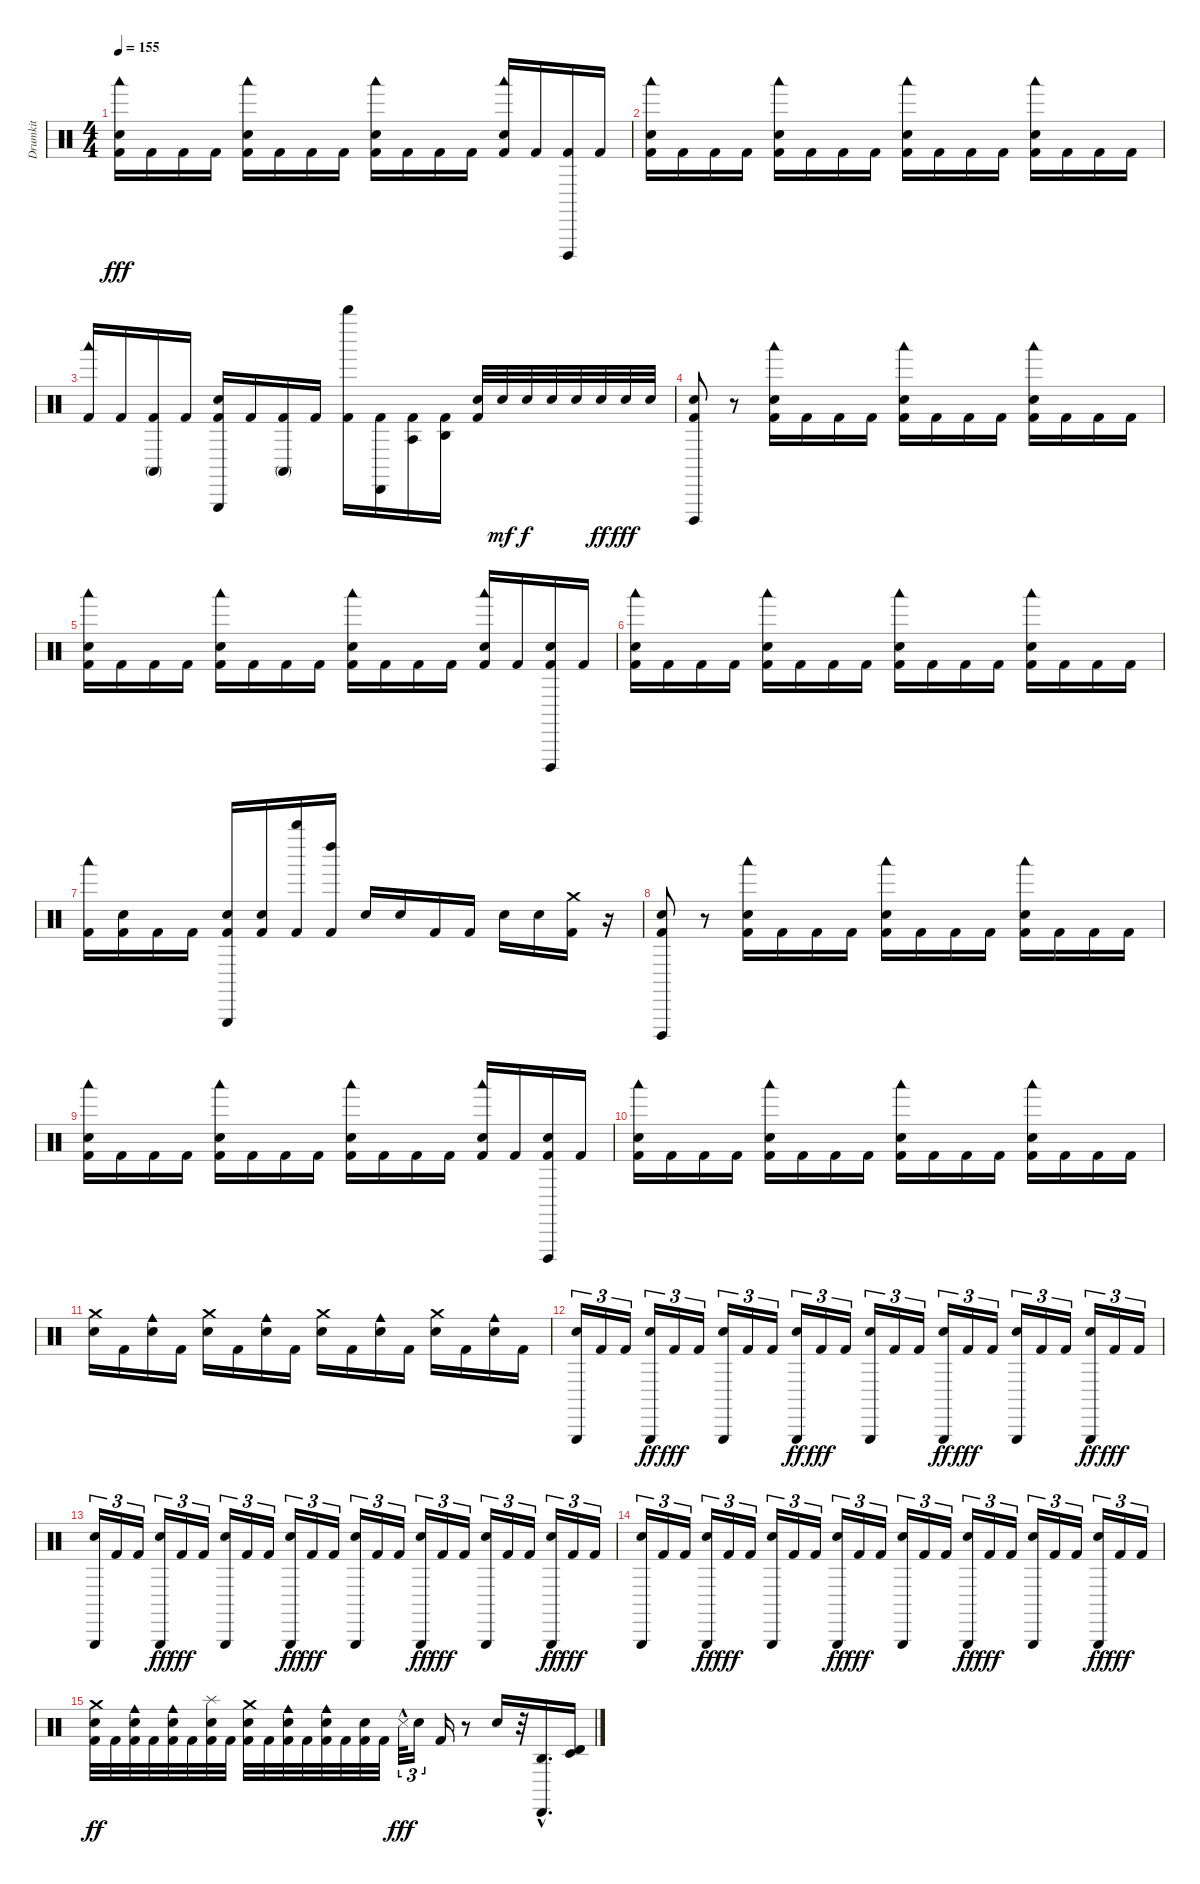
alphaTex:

\track ("Drumkit" "Drumkit") {instrument percussion}
\staff {score}
\articulation defaults
\ts (4 4)
\tempo 155
\clef neutral
\ks c
("Kick (hit) 2" "Snare (hit) 2" "Woodblock low (hit)").16{dy fff} "Kick (hit) 2".16 "Kick (hit) 2".16 "Kick (hit) 2".16 ("Kick (hit) 2" "Snare (hit) 2" "Woodblock low (hit)").16 "Kick (hit) 2".16 "Kick (hit) 2".16 "Kick (hit) 2".16 ("Kick (hit) 2" "Snare (hit) 2" "Woodblock low (hit)").16 "Kick (hit) 2".16 "Kick (hit) 2".16 "Kick (hit) 2".16 ("Kick (hit) 2" "Snare (hit) 2" "Woodblock low (hit)").16 "Kick (hit) 2".16 ("Kick (hit) 2" "Cuica (open)").16 "Kick (hit) 2".16 |
("Kick (hit) 2" "Snare (hit) 2" "Woodblock low (hit)").16 "Kick (hit) 2".16 "Kick (hit) 2".16 "Kick (hit) 2".16 ("Kick (hit) 2" "Snare (hit) 2" "Woodblock low (hit)").16 "Kick (hit) 2".16 "Kick (hit) 2".16 "Kick (hit) 2".16 ("Kick (hit) 2" "Snare (hit) 2" "Woodblock low (hit)").16 "Kick (hit) 2".16 "Kick (hit) 2".16 "Kick (hit) 2".16 ("Kick (hit) 2" "Snare (hit) 2" "Woodblock low (hit)").16 "Kick (hit) 2".16 "Kick (hit) 2".16 "Kick (hit) 2".16 |
("Kick (hit) 2" "Woodblock low (hit)").16 "Kick (hit) 2".16 ("Kick (hit) 2" "Conga high (mute)").16 "Kick (hit) 2".16 ("Kick (hit) 2" "Snare (hit) 2" "Triangle (hit)").16 "Kick (hit) 2".16 ("Kick (hit) 2" "Conga high (mute)").16 "Kick (hit) 2".16 ("Kick (hit) 2" "Whistle high (hit)").16 ("Kick (hit) 2" "Cabasa (hit)").16 ("Kick (hit) 2" "Agogo tow (hit)").16 ("Kick (hit) 2" "Agogo high (hit)").16 ("Kick (hit) 2" "Snare (hit) 2").32 "Snare (hit) 2".32{dy mf} "Snare (hit) 2".32{dy f} "Snare (hit) 2".32 "Snare (hit) 2".32 "Snare (hit) 2".32{dy ff} "Snare (hit) 2".32{dy fff} "Snare (hit) 2".32 |
("Kick (hit) 2" "Snare (hit) 2" "Cuica (open)").8 r.8 ("Kick (hit) 2" "Snare (hit) 2" "Woodblock low (hit)").16 "Kick (hit) 2".16 "Kick (hit) 2".16 "Kick (hit) 2".16 ("Kick (hit) 2" "Snare (hit) 2" "Woodblock low (hit)").16 "Kick (hit) 2".16 "Kick (hit) 2".16 "Kick (hit) 2".16 ("Kick (hit) 2" "Snare (hit) 2" "Woodblock low (hit)").16 "Kick (hit) 2".16 "Kick (hit) 2".16 "Kick (hit) 2".16 |
("Kick (hit) 2" "Snare (hit) 2" "Woodblock low (hit)").16 "Kick (hit) 2".16 "Kick (hit) 2".16 "Kick (hit) 2".16 ("Kick (hit) 2" "Snare (hit) 2" "Woodblock low (hit)").16 "Kick (hit) 2".16 "Kick (hit) 2".16 "Kick (hit) 2".16 ("Kick (hit) 2" "Snare (hit) 2" "Woodblock low (hit)").16 "Kick (hit) 2".16 "Kick (hit) 2".16 "Kick (hit) 2".16 ("Kick (hit) 2" "Snare (hit) 2" "Woodblock low (hit)").16 "Kick (hit) 2".16 ("Kick (hit) 2" "Snare (hit) 2" "Cuica (open)").16 "Kick (hit) 2".16 |
("Kick (hit) 2" "Snare (hit) 2" "Woodblock low (hit)").16 "Kick (hit) 2".16 "Kick (hit) 2".16 "Kick (hit) 2".16 ("Kick (hit) 2" "Snare (hit) 2" "Woodblock low (hit)").16 "Kick (hit) 2".16 "Kick (hit) 2".16 "Kick (hit) 2".16 ("Kick (hit) 2" "Snare (hit) 2" "Woodblock low (hit)").16 "Kick (hit) 2".16 "Kick (hit) 2".16 "Kick (hit) 2".16 ("Kick (hit) 2" "Snare (hit) 2" "Woodblock low (hit)").16 "Kick (hit) 2".16 "Kick (hit) 2".16 "Kick (hit) 2".16 |
("Kick (hit) 2" "Woodblock low (hit)").16 ("Kick (hit) 2" "Snare (hit) 2").16 "Kick (hit) 2".16 "Kick (hit) 2".16 ("Kick (hit) 2" "Snare (hit) 2" "Triangle (hit)").16 ("Kick (hit) 2" "Snare (hit) 2").16 ("Kick (hit) 2" "Whistle high (hit)").16 ("Kick (hit) 2" "Left Maraca (hit)").16 "Snare (hit) 2".16 "Snare (hit) 2".16 "Kick (hit) 2".16 "Kick (hit) 2".16 "Snare (hit) 2".16 "Snare (hit) 2".16 ("Kick (hit) 2" "Crash medium (hit)").16 r.16 |
("Kick (hit) 2" "Snare (hit) 2" "Cuica (open)").8 r.8 ("Kick (hit) 2" "Snare (hit) 2" "Woodblock low (hit)").16 "Kick (hit) 2".16 "Kick (hit) 2".16 "Kick (hit) 2".16 ("Kick (hit) 2" "Snare (hit) 2" "Woodblock low (hit)").16 "Kick (hit) 2".16 "Kick (hit) 2".16 "Kick (hit) 2".16 ("Kick (hit) 2" "Snare (hit) 2" "Woodblock low (hit)").16 "Kick (hit) 2".16 "Kick (hit) 2".16 "Kick (hit) 2".16 |
("Kick (hit) 2" "Snare (hit) 2" "Woodblock low (hit)").16 "Kick (hit) 2".16 "Kick (hit) 2".16 "Kick (hit) 2".16 ("Kick (hit) 2" "Snare (hit) 2" "Woodblock low (hit)").16 "Kick (hit) 2".16 "Kick (hit) 2".16 "Kick (hit) 2".16 ("Kick (hit) 2" "Snare (hit) 2" "Woodblock low (hit)").16 "Kick (hit) 2".16 "Kick (hit) 2".16 "Kick (hit) 2".16 ("Kick (hit) 2" "Snare (hit) 2" "Woodblock low (hit)").16 "Kick (hit) 2".16 ("Kick (hit) 2" "Snare (hit) 2" "Cuica (open)").16 "Kick (hit) 2".16 |
("Kick (hit) 2" "Snare (hit) 2" "Woodblock low (hit)").16 "Kick (hit) 2".16 "Kick (hit) 2".16 "Kick (hit) 2".16 ("Kick (hit) 2" "Snare (hit) 2" "Woodblock low (hit)").16 "Kick (hit) 2".16 "Kick (hit) 2".16 "Kick (hit) 2".16 ("Kick (hit) 2" "Snare (hit) 2" "Woodblock low (hit)").16 "Kick (hit) 2".16 "Kick (hit) 2".16 "Kick (hit) 2".16 ("Kick (hit) 2" "Snare (hit) 2" "Woodblock low (hit)").16 "Kick (hit) 2".16 "Kick (hit) 2".16 "Kick (hit) 2".16 |
("Snare (hit) 2" "Crash medium (hit)").16 "Kick (hit) 2".16 ("Snare (hit) 2" "Cowbell medium (hit)").16 "Kick (hit) 2".16 ("Snare (hit) 2" "Crash medium (hit)").16 "Kick (hit) 2".16 ("Snare (hit) 2" "Cowbell medium (hit)").16 "Kick (hit) 2".16 ("Snare (hit) 2" "Crash medium (hit)").16 "Kick (hit) 2".16 ("Hand Clap (hit)" "Cowbell medium (hit)").16 "Kick (hit) 2".16 ("Snare (hit) 2" "Crash medium (hit)").16 "Kick (hit) 2".16 ("Snare (hit) 2" "Cowbell medium (hit)").16 "Kick (hit) 2".16 |
("Snare (hit) 2" "Triangle (hit)").16{tu (3 2)} "Kick (hit) 2".16{tu (3 2)} "Kick (hit) 2".16{tu (3 2)} ("Snare (hit) 2" "Triangle (hit)").16{tu (3 2) dy ff} "Kick (hit) 2".16{tu (3 2) dy fff} "Kick (hit) 2".16{tu (3 2)} ("Snare (hit) 2" "Triangle (hit)").16{tu (3 2)} "Kick (hit) 2".16{tu (3 2)} "Kick (hit) 2".16{tu (3 2)} ("Snare (hit) 2" "Triangle (hit)").16{tu (3 2) dy ff} "Kick (hit) 2".16{tu (3 2) dy fff} "Kick (hit) 2".16{tu (3 2)} ("Snare (hit) 2" "Triangle (hit)").16{tu (3 2)} "Kick (hit) 2".16{tu (3 2)} "Kick (hit) 2".16{tu (3 2)} ("Snare (hit) 2" "Triangle (hit)").16{tu (3 2) dy ff} "Kick (hit) 2".16{tu (3 2) dy fff} "Kick (hit) 2".16{tu (3 2)} ("Snare (hit) 2" "Triangle (hit)").16{tu (3 2)} "Kick (hit) 2".16{tu (3 2)} "Kick (hit) 2".16{tu (3 2)} ("Snare (hit) 2" "Triangle (hit)").16{tu (3 2) dy ff} "Kick (hit) 2".16{tu (3 2) dy fff} "Kick (hit) 2".16{tu (3 2)} |
("Snare (hit) 2" "Triangle (hit)").16{tu (3 2)} "Kick (hit) 2".16{tu (3 2)} "Kick (hit) 2".16{tu (3 2)} ("Snare (hit) 2" "Triangle (hit)").16{tu (3 2) dy ff} "Kick (hit) 2".16{tu (3 2) dy fff} "Kick (hit) 2".16{tu (3 2)} ("Snare (hit) 2" "Triangle (hit)").16{tu (3 2)} "Kick (hit) 2".16{tu (3 2)} "Kick (hit) 2".16{tu (3 2)} ("Snare (hit) 2" "Triangle (hit)").16{tu (3 2) dy ff} "Kick (hit) 2".16{tu (3 2) dy fff} "Kick (hit) 2".16{tu (3 2)} ("Snare (hit) 2" "Triangle (hit)").16{tu (3 2)} "Kick (hit) 2".16{tu (3 2)} "Kick (hit) 2".16{tu (3 2)} ("Snare (hit) 2" "Triangle (hit)").16{tu (3 2) dy ff} "Kick (hit) 2".16{tu (3 2) dy fff} "Kick (hit) 2".16{tu (3 2)} ("Snare (hit) 2" "Triangle (hit)").16{tu (3 2)} "Kick (hit) 2".16{tu (3 2)} "Kick (hit) 2".16{tu (3 2)} ("Snare (hit) 2" "Triangle (hit)").16{tu (3 2) dy ff} "Kick (hit) 2".16{tu (3 2) dy fff} "Kick (hit) 2".16{tu (3 2)} |
("Snare (hit) 2" "Triangle (hit)").16{tu (3 2)} "Kick (hit) 2".16{tu (3 2)} "Kick (hit) 2".16{tu (3 2)} ("Snare (hit) 2" "Triangle (hit)").16{tu (3 2) dy ff} "Kick (hit) 2".16{tu (3 2) dy fff} "Kick (hit) 2".16{tu (3 2)} ("Snare (hit) 2" "Triangle (hit)").16{tu (3 2)} "Kick (hit) 2".16{tu (3 2)} "Kick (hit) 2".16{tu (3 2)} ("Snare (hit) 2" "Triangle (hit)").16{tu (3 2) dy ff} "Kick (hit) 2".16{tu (3 2) dy fff} "Kick (hit) 2".16{tu (3 2)} ("Snare (hit) 2" "Triangle (hit)").16{tu (3 2)} "Kick (hit) 2".16{tu (3 2)} "Kick (hit) 2".16{tu (3 2)} ("Snare (hit) 2" "Triangle (hit)").16{tu (3 2) dy ff} "Kick (hit) 2".16{tu (3 2) dy fff} "Kick (hit) 2".16{tu (3 2)} ("Snare (hit) 2" "Triangle (hit)").16{tu (3 2)} "Kick (hit) 2".16{tu (3 2)} "Kick (hit) 2".16{tu (3 2)} ("Snare (hit) 2" "Triangle (hit)").16{tu (3 2) dy ff} "Kick (hit) 2".16{tu (3 2) dy fff} "Kick (hit) 2".16{tu (3 2)} |
("Kick (hit) 2" "Snare (hit) 2" "Crash medium (hit)").32{dy ff} "Kick (hit) 2".32 ("Kick (hit) 2" "Snare (hit) 2" "Cowbell medium (hit)").32 "Kick (hit) 2".32 ("Kick (hit) 2" "Snare (hit) 2" "Cowbell medium (hit)").32 "Kick (hit) 2".32 ("Kick (hit) 2" "Snare (hit) 2" "Splash (hit)").32 "Kick (hit) 2".32 ("Kick (hit) 2" "Snare (hit) 2" "Crash medium (hit)").32 "Kick (hit) 2".32 ("Kick (hit) 2" "Snare (hit) 2" "Cowbell medium (hit)").32 "Kick (hit) 2".32 ("Kick (hit) 2" "Snare (hit) 2" "Cowbell medium (hit)").32 "Kick (hit) 2".32 ("Kick (hit) 2" "Snare (hit) 2").32 "Kick (hit) 2".32 "Snare (side stick) 3"{hac}.32{tu (3 2) dy fff} "Hand Clap (hit)".16{tu (3 2)} "Kick (hit) 2".16 r.8 "Hand Clap (hit)".16 r.32 ("Cabasa (hit)" "Agogo high (hit)"{hac}).16{d} ("Timbale low (hit)" "Timbale high (hit)").16
